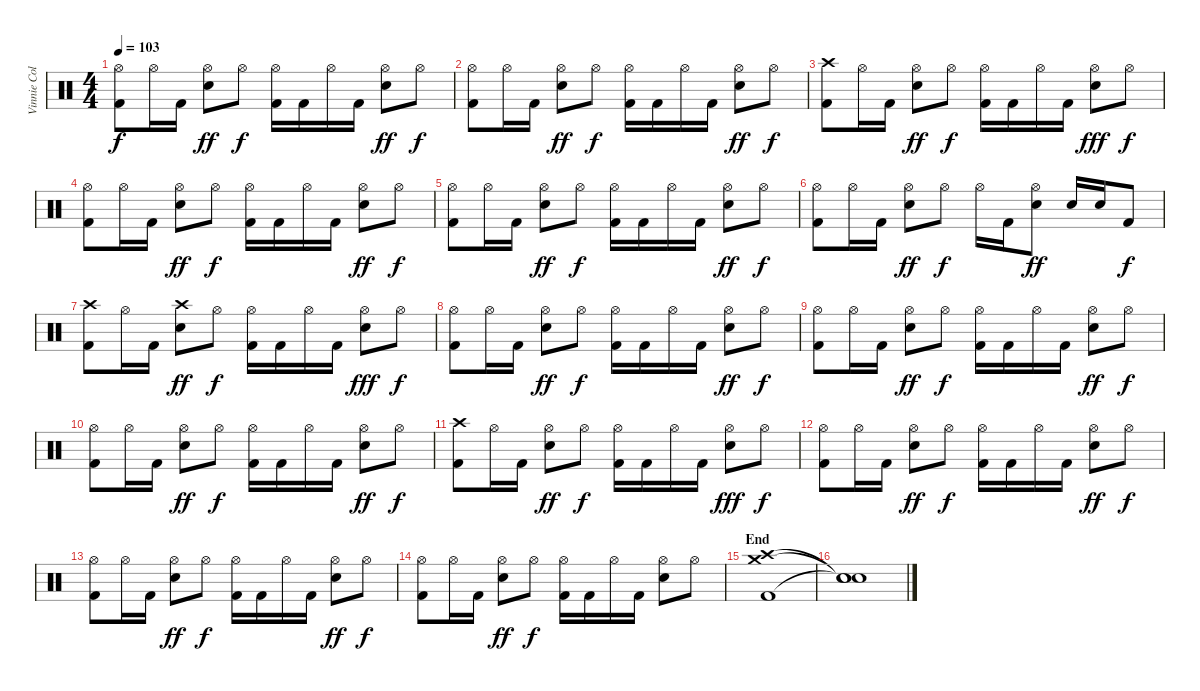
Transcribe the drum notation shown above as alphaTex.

\track ("Vinnie Colaiuta" "Vinnie Col") {instrument percussion}
\staff {score}
\articulation defaults
\ts (4 4)
\tempo 103
\clef neutral
\ks c
("Hi-Hat (open)" "Kick (hit) 2").8{dy f} "Hi-Hat (open)".16 "Kick (hit) 2".16 ("Hi-Hat (open)" "Electric Snare (hit)").8{dy ff} "Hi-Hat (open)".8{dy f} ("Hi-Hat (open)" "Kick (hit) 2").16 "Kick (hit) 2".16 "Hi-Hat (open)".16 "Kick (hit) 2".16 ("Hi-Hat (open)" "Electric Snare (hit)").8{dy ff} "Hi-Hat (open)".8{dy f} |
("Hi-Hat (open)" "Kick (hit) 2").8 "Hi-Hat (open)".16 "Kick (hit) 2".16 ("Hi-Hat (open)" "Electric Snare (hit)").8{dy ff} "Hi-Hat (open)".8{dy f} ("Hi-Hat (open)" "Kick (hit) 2").16 "Kick (hit) 2".16 "Hi-Hat (open)".16 "Kick (hit) 2".16 ("Hi-Hat (open)" "Electric Snare (hit)").8{dy ff} "Hi-Hat (open)".8{dy f} |
("Crash high (hit)" "Kick (hit) 2").8 "Hi-Hat (open)".16 "Kick (hit) 2".16 ("Hi-Hat (open)" "Electric Snare (hit)").8{dy ff} "Hi-Hat (open)".8{dy f} ("Hi-Hat (open)" "Kick (hit) 2").16 "Kick (hit) 2".16 "Hi-Hat (open)".16 "Kick (hit) 2".16 ("Hi-Hat (open)" "Electric Snare (hit)").8{dy fff} "Hi-Hat (open)".8{dy f} |
("Hi-Hat (open)" "Kick (hit) 2").8 "Hi-Hat (open)".16 "Kick (hit) 2".16 ("Hi-Hat (open)" "Electric Snare (hit)").8{dy ff} "Hi-Hat (open)".8{dy f} ("Hi-Hat (open)" "Kick (hit) 2").16 "Kick (hit) 2".16 "Hi-Hat (open)".16 "Kick (hit) 2".16 ("Hi-Hat (open)" "Electric Snare (hit)").8{dy ff} "Hi-Hat (open)".8{dy f} |
("Hi-Hat (open)" "Kick (hit) 2").8 "Hi-Hat (open)".16 "Kick (hit) 2".16 ("Hi-Hat (open)" "Electric Snare (hit)").8{dy ff} "Hi-Hat (open)".8{dy f} ("Hi-Hat (open)" "Kick (hit) 2").16 "Kick (hit) 2".16 "Hi-Hat (open)".16 "Kick (hit) 2".16 ("Hi-Hat (open)" "Electric Snare (hit)").8{dy ff} "Hi-Hat (open)".8{dy f} |
("Hi-Hat (open)" "Kick (hit) 2").8 "Hi-Hat (open)".16 "Kick (hit) 2".16 ("Hi-Hat (open)" "Electric Snare (hit)").8{dy ff} "Hi-Hat (open)".8{dy f} "Hi-Hat (open)".16 "Kick (hit) 2".16 ("Hi-Hat (open)" "Electric Snare (hit)").8{dy ff} "Electric Snare (hit)".16 "Electric Snare (hit)".16 "Kick (hit) 2".8{dy f} |
("Crash high (hit)" "Kick (hit) 2").8 "Hi-Hat (open)".16 "Kick (hit) 2".16 ("Crash high (hit)" "Electric Snare (hit)").8{dy ff} "Hi-Hat (open)".8{dy f} ("Hi-Hat (open)" "Kick (hit) 2").16 "Kick (hit) 2".16 "Hi-Hat (open)".16 "Kick (hit) 2".16 ("Hi-Hat (open)" "Electric Snare (hit)").8{dy fff} "Hi-Hat (open)".8{dy f} |
("Hi-Hat (open)" "Kick (hit) 2").8 "Hi-Hat (open)".16 "Kick (hit) 2".16 ("Hi-Hat (open)" "Electric Snare (hit)").8{dy ff} "Hi-Hat (open)".8{dy f} ("Hi-Hat (open)" "Kick (hit) 2").16 "Kick (hit) 2".16 "Hi-Hat (open)".16 "Kick (hit) 2".16 ("Hi-Hat (open)" "Electric Snare (hit)").8{dy ff} "Hi-Hat (open)".8{dy f} |
("Hi-Hat (open)" "Kick (hit) 2").8 "Hi-Hat (open)".16 "Kick (hit) 2".16 ("Hi-Hat (open)" "Electric Snare (hit)").8{dy ff} "Hi-Hat (open)".8{dy f} ("Hi-Hat (open)" "Kick (hit) 2").16 "Kick (hit) 2".16 "Hi-Hat (open)".16 "Kick (hit) 2".16 ("Hi-Hat (open)" "Electric Snare (hit)").8{dy ff} "Hi-Hat (open)".8{dy f} |
("Hi-Hat (open)" "Kick (hit) 2").8 "Hi-Hat (open)".16 "Kick (hit) 2".16 ("Hi-Hat (open)" "Electric Snare (hit)").8{dy ff} "Hi-Hat (open)".8{dy f} ("Hi-Hat (open)" "Kick (hit) 2").16 "Kick (hit) 2".16 "Hi-Hat (open)".16 "Kick (hit) 2".16 ("Hi-Hat (open)" "Electric Snare (hit)").8{dy ff} "Hi-Hat (open)".8{dy f} |
("Crash high (hit)" "Kick (hit) 2").8 "Hi-Hat (open)".16 "Kick (hit) 2".16 ("Hi-Hat (open)" "Electric Snare (hit)").8{dy ff} "Hi-Hat (open)".8{dy f} ("Hi-Hat (open)" "Kick (hit) 2").16 "Kick (hit) 2".16 "Hi-Hat (open)".16 "Kick (hit) 2".16 ("Hi-Hat (open)" "Electric Snare (hit)").8{dy fff} "Hi-Hat (open)".8{dy f} |
("Hi-Hat (open)" "Kick (hit) 2").8 "Hi-Hat (open)".16 "Kick (hit) 2".16 ("Hi-Hat (open)" "Electric Snare (hit)").8{dy ff} "Hi-Hat (open)".8{dy f} ("Hi-Hat (open)" "Kick (hit) 2").16 "Kick (hit) 2".16 "Hi-Hat (open)".16 "Kick (hit) 2".16 ("Hi-Hat (open)" "Electric Snare (hit)").8{dy ff} "Hi-Hat (open)".8{dy f} |
("Hi-Hat (open)" "Kick (hit) 2").8 "Hi-Hat (open)".16 "Kick (hit) 2".16 ("Hi-Hat (open)" "Electric Snare (hit)").8{dy ff} "Hi-Hat (open)".8{dy f} ("Hi-Hat (open)" "Kick (hit) 2").16 "Kick (hit) 2".16 "Hi-Hat (open)".16 "Kick (hit) 2".16 ("Hi-Hat (open)" "Electric Snare (hit)").8{dy ff} "Hi-Hat (open)".8{dy f} |
("Hi-Hat (open)" "Kick (hit) 2").8 "Hi-Hat (open)".16 "Kick (hit) 2".16 ("Hi-Hat (open)" "Electric Snare (hit)").8{dy ff} "Hi-Hat (open)".8{dy f} ("Hi-Hat (open)" "Kick (hit) 2").16 "Kick (hit) 2".16 "Hi-Hat (open)".16 "Kick (hit) 2".16 ("Hi-Hat (open)" "Electric Snare (hit)").8 "Hi-Hat (open)".8 |
\section ("" "End")
("Crash medium (hit)" "Crash high (hit)" "Kick (hit) 2").1 |
("Snare (hit)"{t} "Snare (hit)"{t} "Snare (hit)"{t}).1
